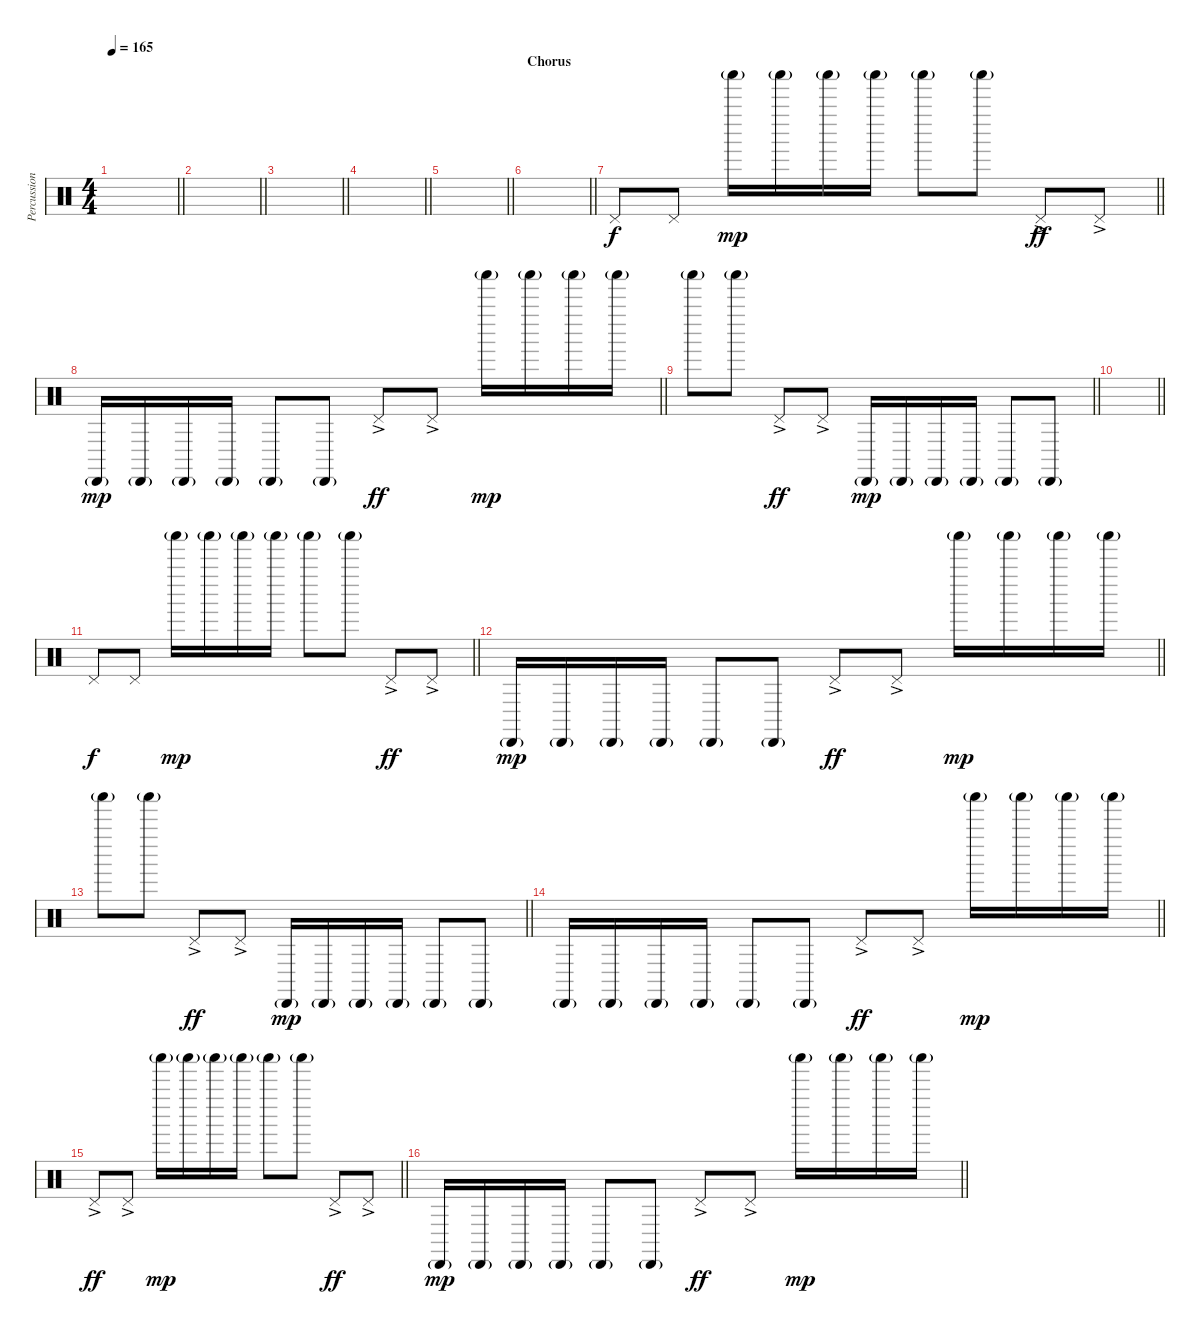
\track ("Percussion" "Percussion") {instrument percussion}
\staff {score}
\articulation defaults
\ts (4 4)
\tempo 165
\clef neutral
\barLineRight lightlight
\ks c
|
\barLineRight lightlight
|
\barLineRight lightlight
|
\barLineRight lightlight
|
\barLineRight lightlight
|
\section ("" "Chorus")
\barLineRight lightlight
|
\barLineRight lightlight "Pedal Hi-Hat (hit)".8 "Pedal Hi-Hat (hit)".8 "Shaker (hit)"{g}.16{dy mp} "Shaker (hit)"{g}.16 "Shaker (hit)"{g}.16 "Shaker (hit)"{g}.16 "Shaker (hit)"{g}.8 "Shaker (hit)"{g}.8 "Pedal Hi-Hat (hit)"{ac}.8{dy ff} "Pedal Hi-Hat (hit)"{ac}.8
|
\barLineRight lightlight "Cabasa (hit)"{g}.16{dy mp} "Cabasa (hit)"{g}.16 "Cabasa (hit)"{g}.16 "Cabasa (hit)"{g}.16 "Cabasa (hit)"{g}.8 "Cabasa (hit)"{g}.8 "Pedal Hi-Hat (hit)"{ac}.8{dy ff} "Pedal Hi-Hat (hit)"{ac}.8 "Shaker (hit)"{g}.16{dy mp} "Shaker (hit)"{g}.16 "Shaker (hit)"{g}.16 "Shaker (hit)"{g}.16
|
\barLineRight lightlight "Shaker (hit)"{g}.8 "Shaker (hit)"{g}.8 "Pedal Hi-Hat (hit)"{ac}.8{dy ff} "Pedal Hi-Hat (hit)"{ac}.8 "Cabasa (hit)"{g}.16{dy mp} "Cabasa (hit)"{g}.16 "Cabasa (hit)"{g}.16 "Cabasa (hit)"{g}.16 "Cabasa (hit)"{g}.8 "Cabasa (hit)"{g}.8
|
\barLineRight lightlight
|
\barLineRight lightlight "Pedal Hi-Hat (hit)".8{dy f} "Pedal Hi-Hat (hit)".8 "Shaker (hit)"{g}.16{dy mp} "Shaker (hit)"{g}.16 "Shaker (hit)"{g}.16 "Shaker (hit)"{g}.16 "Shaker (hit)"{g}.8 "Shaker (hit)"{g}.8 "Pedal Hi-Hat (hit)"{ac}.8{dy ff} "Pedal Hi-Hat (hit)"{ac}.8
|
\barLineRight lightlight "Cabasa (hit)"{g}.16{dy mp} "Cabasa (hit)"{g}.16 "Cabasa (hit)"{g}.16 "Cabasa (hit)"{g}.16 "Cabasa (hit)"{g}.8 "Cabasa (hit)"{g}.8 "Pedal Hi-Hat (hit)"{ac}.8{dy ff} "Pedal Hi-Hat (hit)"{ac}.8 "Shaker (hit)"{g}.16{dy mp} "Shaker (hit)"{g}.16 "Shaker (hit)"{g}.16 "Shaker (hit)"{g}.16
|
\barLineRight lightlight "Shaker (hit)"{g}.8 "Shaker (hit)"{g}.8 "Pedal Hi-Hat (hit)"{ac}.8{dy ff} "Pedal Hi-Hat (hit)"{ac}.8 "Cabasa (hit)"{g}.16{dy mp} "Cabasa (hit)"{g}.16 "Cabasa (hit)"{g}.16 "Cabasa (hit)"{g}.16 "Cabasa (hit)"{g}.8 "Cabasa (hit)"{g}.8
|
\barLineRight lightlight "Cabasa (hit)"{g}.16 "Cabasa (hit)"{g}.16 "Cabasa (hit)"{g}.16 "Cabasa (hit)"{g}.16 "Cabasa (hit)"{g}.8 "Cabasa (hit)"{g}.8 "Pedal Hi-Hat (hit)"{ac}.8{dy ff} "Pedal Hi-Hat (hit)"{ac}.8 "Shaker (hit)"{g}.16{dy mp} "Shaker (hit)"{g}.16 "Shaker (hit)"{g}.16 "Shaker (hit)"{g}.16
|
\barLineRight lightlight "Pedal Hi-Hat (hit)"{ac}.8{dy ff} "Pedal Hi-Hat (hit)"{ac}.8 "Shaker (hit)"{g}.16{dy mp} "Shaker (hit)"{g}.16 "Shaker (hit)"{g}.16 "Shaker (hit)"{g}.16 "Shaker (hit)"{g}.8 "Shaker (hit)"{g}.8 "Pedal Hi-Hat (hit)"{ac}.8{dy ff} "Pedal Hi-Hat (hit)"{ac}.8
|
\barLineRight lightlight "Cabasa (hit)"{g}.16{dy mp} "Cabasa (hit)"{g}.16 "Cabasa (hit)"{g}.16 "Cabasa (hit)"{g}.16 "Cabasa (hit)"{g}.8 "Cabasa (hit)"{g}.8 "Pedal Hi-Hat (hit)"{ac}.8{dy ff} "Pedal Hi-Hat (hit)"{ac}.8 "Shaker (hit)"{g}.16{dy mp} "Shaker (hit)"{g}.16 "Shaker (hit)"{g}.16 "Shaker (hit)"{g}.16
